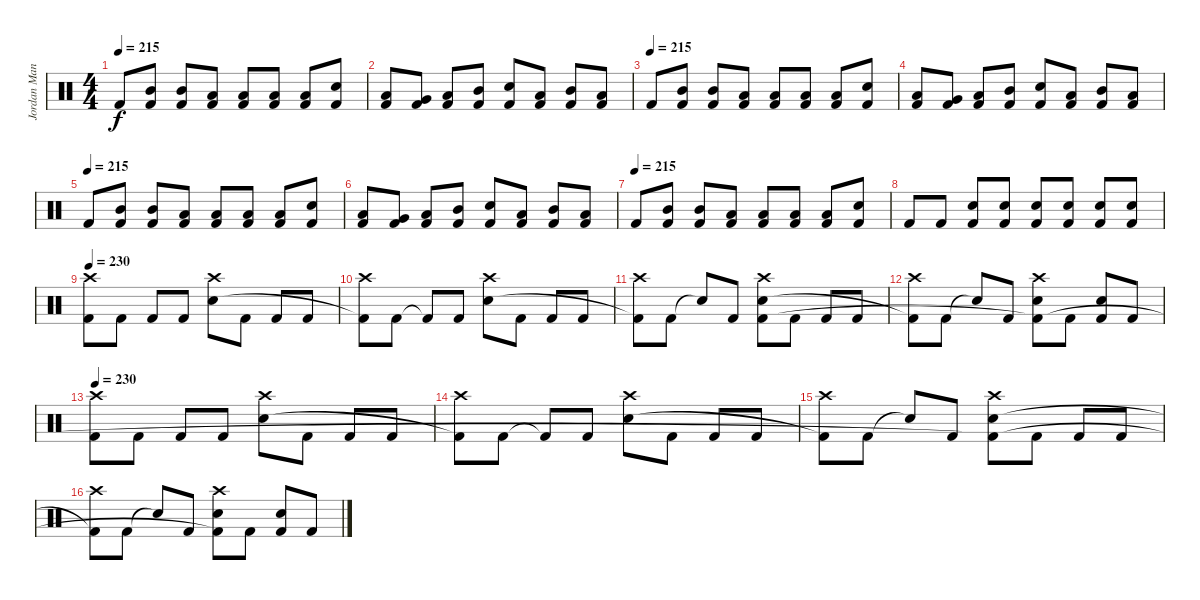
\track ("Jordan Mancino" "Jordan Man") {instrument percussion}
\staff {score}
\articulation defaults
\ts (4 4)
\tempo 215
\clef neutral
\ks c "Kick (hit) 2".8{dy f}
("Mid Tom (hit)" "Kick (hit) 2").8 ("Mid Tom (hit)" "Kick (hit) 2").8 ("Low Tom (hit)" "Kick (hit) 2").8 ("Low Tom (hit)" "Kick (hit) 2").8 ("Low Tom (hit)" "Kick (hit) 2").8 ("Low Tom (hit)" "Kick (hit) 2").8 ("Electric Snare (hit)" "Kick (hit) 2").8 |
("Low Tom (hit)" "Kick (hit) 2").8 ("Very Low Tom (hit)" "Kick (hit) 2").8 ("Low Tom (hit)" "Kick (hit) 2").8 ("Mid Tom (hit)" "Kick (hit) 2").8 ("Electric Snare (hit)" "Kick (hit) 2").8 ("Low Tom (hit)" "Kick (hit) 2").8 ("Mid Tom (hit)" "Kick (hit) 2").8 ("Low Tom (hit)" "Kick (hit) 2").8 |
\tempo (215)
"Kick (hit) 2".8 ("Mid Tom (hit)" "Kick (hit) 2").8 ("Mid Tom (hit)" "Kick (hit) 2").8 ("Low Tom (hit)" "Kick (hit) 2").8 ("Low Tom (hit)" "Kick (hit) 2").8 ("Low Tom (hit)" "Kick (hit) 2").8 ("Low Tom (hit)" "Kick (hit) 2").8 ("Electric Snare (hit)" "Kick (hit) 2").8 |
("Low Tom (hit)" "Kick (hit) 2").8 ("Very Low Tom (hit)" "Kick (hit) 2").8 ("Low Tom (hit)" "Kick (hit) 2").8 ("Mid Tom (hit)" "Kick (hit) 2").8 ("Electric Snare (hit)" "Kick (hit) 2").8 ("Low Tom (hit)" "Kick (hit) 2").8 ("Mid Tom (hit)" "Kick (hit) 2").8 ("Low Tom (hit)" "Kick (hit) 2").8 |
\tempo (215)
"Kick (hit) 2".8 ("Mid Tom (hit)" "Kick (hit) 2").8 ("Mid Tom (hit)" "Kick (hit) 2").8 ("Low Tom (hit)" "Kick (hit) 2").8 ("Low Tom (hit)" "Kick (hit) 2").8 ("Low Tom (hit)" "Kick (hit) 2").8 ("Low Tom (hit)" "Kick (hit) 2").8 ("Electric Snare (hit)" "Kick (hit) 2").8 |
("Low Tom (hit)" "Kick (hit) 2").8 ("Very Low Tom (hit)" "Kick (hit) 2").8 ("Low Tom (hit)" "Kick (hit) 2").8 ("Mid Tom (hit)" "Kick (hit) 2").8 ("Electric Snare (hit)" "Kick (hit) 2").8 ("Low Tom (hit)" "Kick (hit) 2").8 ("Mid Tom (hit)" "Kick (hit) 2").8 ("Low Tom (hit)" "Kick (hit) 2").8 |
\tempo (215)
"Kick (hit) 2".8 ("Mid Tom (hit)" "Kick (hit) 2").8 ("Mid Tom (hit)" "Kick (hit) 2").8 ("Low Tom (hit)" "Kick (hit) 2").8 ("Low Tom (hit)" "Kick (hit) 2").8 ("Low Tom (hit)" "Kick (hit) 2").8 ("Low Tom (hit)" "Kick (hit) 2").8 ("Electric Snare (hit)" "Kick (hit) 2").8 |
"Kick (hit) 2".8 "Kick (hit) 2".8 ("Electric Snare (hit)" "Kick (hit) 2").8 ("Electric Snare (hit)" "Kick (hit) 2").8 ("Electric Snare (hit)" "Kick (hit) 2").8 ("Electric Snare (hit)" "Kick (hit) 2").8 ("Electric Snare (hit)" "Kick (hit) 2").8 ("Electric Snare (hit)" "Kick (hit) 2").8 |
\tempo 230
("Crash high (hit)" "Kick (hit) 2").8 "Kick (hit) 2".8 "Kick (hit) 2".8 "Kick (hit) 2".8 ("Crash high (hit)" "Electric Snare (hit)").8 "Kick (hit) 2".8 "Kick (hit) 2".8 "Kick (hit) 2".8 |
("Crash high (hit)" "Kick (hit) 2"{t}).8 "Kick (hit) 2".8 "Kick (hit) 2"{t}.8 "Kick (hit) 2".8 ("Crash high (hit)" "Electric Snare (hit)").8 "Kick (hit) 2".8 "Kick (hit) 2".8 "Kick (hit) 2".8 |
("Crash high (hit)" "Kick (hit) 2"{t}).8 "Kick (hit) 2".8 "Snare (hit)"{t}.8 "Kick (hit) 2".8 ("Crash high (hit)" "Electric Snare (hit)" "Kick (hit) 2").8 "Kick (hit) 2".8 "Kick (hit) 2".8 "Kick (hit) 2".8 |
("Crash high (hit)" "Kick (hit) 2"{t}).8 "Kick (hit) 2".8 "Snare (hit)"{t}.8 "Kick (hit) 2".8 ("Crash high (hit)" "Electric Snare (hit)" "Kick (hit) 2"{t}).8 "Kick (hit) 2".8 ("Electric Snare (hit)" "Kick (hit) 2").8 "Kick (hit) 2".8 |
\tempo 230
("Crash high (hit)" "Kick (hit) 2").8 "Kick (hit) 2".8 "Kick (hit) 2".8 "Kick (hit) 2".8 ("Crash high (hit)" "Electric Snare (hit)").8 "Kick (hit) 2".8 "Kick (hit) 2".8 "Kick (hit) 2".8 |
("Crash high (hit)" "Kick (hit) 2"{t}).8 "Kick (hit) 2".8 "Kick (hit) 2"{t}.8 "Kick (hit) 2".8 ("Crash high (hit)" "Electric Snare (hit)").8 "Kick (hit) 2".8 "Kick (hit) 2".8 "Kick (hit) 2".8 |
("Crash high (hit)" "Kick (hit) 2"{t}).8 "Kick (hit) 2".8 "Snare (hit)"{t}.8 "Kick (hit) 2".8 ("Crash high (hit)" "Electric Snare (hit)" "Kick (hit) 2"{t}).8 "Kick (hit) 2".8 "Kick (hit) 2".8 "Kick (hit) 2".8 |
("Crash high (hit)" "Kick (hit) 2"{t}).8 "Kick (hit) 2".8 "Snare (hit)"{t}.8 "Kick (hit) 2".8 ("Crash high (hit)" "Electric Snare (hit)" "Kick (hit) 2"{t}).8 "Kick (hit) 2".8 ("Electric Snare (hit)" "Kick (hit) 2").8 "Kick (hit) 2".8
